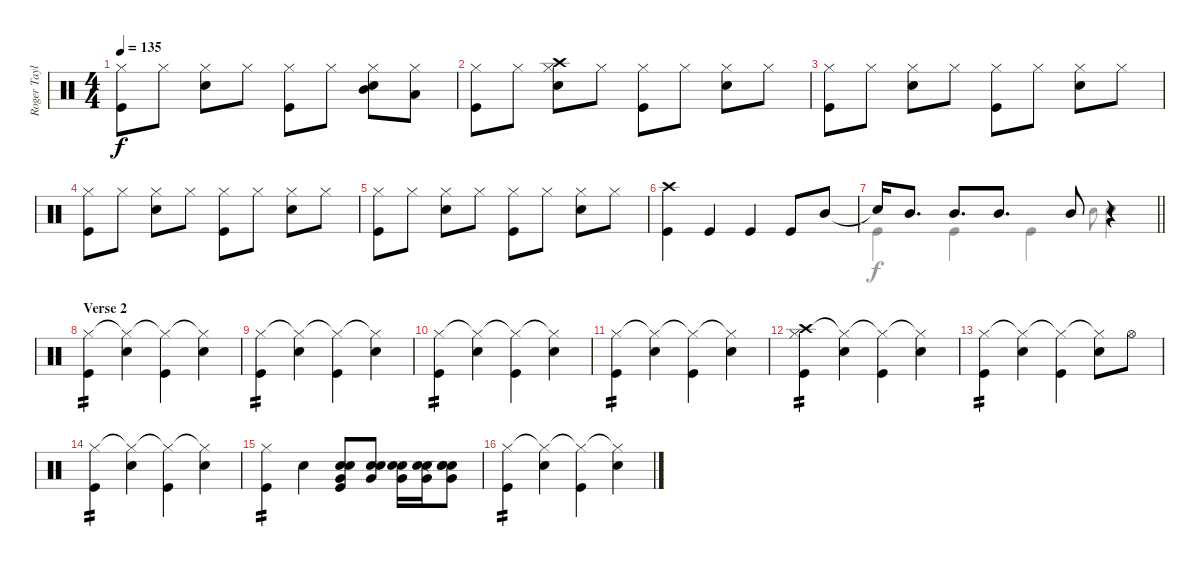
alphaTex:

\track ("Roger Taylor" "Roger Tayl") {instrument percussion}
\staff {score}
\articulation defaults
\voice
\ts (4 4)
\tempo 135
\clef neutral
\ks c
("Hi-Hat (closed)" "Kick (hit)").8{dy f} "Hi-Hat (closed)".8 ("Hi-Hat (closed)" "Snare (hit) 2").8 "Hi-Hat (closed)".8 ("Hi-Hat (closed)" "Kick (hit)").8 "Hi-Hat (closed)".8 ("Hi-Hat (closed)" "Mid Tom (hit)" "Snare (hit) 2").8 ("Hi-Hat (closed)" "Low Tom (hit)").8 |
("Hi-Hat (closed)" "Kick (hit)").8 "Hi-Hat (closed)".8 ("Crash high (hit)" "Hi-Hat (closed)" "Snare (hit) 2").8 "Hi-Hat (closed)".8 ("Hi-Hat (closed)" "Kick (hit)").8 "Hi-Hat (closed)".8 ("Hi-Hat (closed)" "Snare (hit) 2").8 "Hi-Hat (closed)".8 |
("Hi-Hat (closed)" "Kick (hit)").8 "Hi-Hat (closed)".8 ("Hi-Hat (closed)" "Snare (hit) 2").8 "Hi-Hat (closed)".8 ("Hi-Hat (closed)" "Kick (hit)").8 "Hi-Hat (closed)".8 ("Hi-Hat (closed)" "Snare (hit) 2").8 "Hi-Hat (closed)".8 |
("Hi-Hat (closed)" "Kick (hit)").8 "Hi-Hat (closed)".8 ("Hi-Hat (closed)" "Snare (hit) 2").8 "Hi-Hat (closed)".8 ("Hi-Hat (closed)" "Kick (hit)").8 "Hi-Hat (closed)".8 ("Hi-Hat (closed)" "Snare (hit) 2").8 "Hi-Hat (closed)".8 |
("Hi-Hat (closed)" "Kick (hit)").8 "Hi-Hat (closed)".8 ("Hi-Hat (closed)" "Snare (hit) 2").8 "Hi-Hat (closed)".8 ("Hi-Hat (closed)" "Kick (hit)").8 "Hi-Hat (closed)".8 ("Hi-Hat (closed)" "Snare (hit) 2").8 "Hi-Hat (closed)".8 |
("Crash high (hit)" "Kick (hit)").4 "Kick (hit)".4 "Kick (hit)".4 "Kick (hit)".8 "Mid Tom (hit)".8 |
\barLineRight lightlight "Snare (hit)"{t}.16 "Mid Tom (hit)".8{d} "Mid Tom (hit)".8{d} "Mid Tom (hit)".8{d} "Mid Tom (hit)".8
r.4 |
\section ("" "Verse 2")
("Hi-Hat (closed)" "Kick (hit)").4{tp 2} ("Hi-Hat (closed)"{t} "Snare (hit) 2").4 ("Hi-Hat (closed)"{t} "Kick (hit)").4 ("Hi-Hat (closed)"{t} "Snare (hit) 2").4 |
("Hi-Hat (closed)" "Kick (hit)").4{tp 2} ("Hi-Hat (closed)"{t} "Snare (hit) 2").4 ("Hi-Hat (closed)"{t} "Kick (hit)").4 ("Hi-Hat (closed)"{t} "Snare (hit) 2").4 |
("Hi-Hat (closed)" "Kick (hit)").4{tp 2} ("Hi-Hat (closed)"{t} "Snare (hit) 2").4 ("Hi-Hat (closed)"{t} "Kick (hit)").4 ("Hi-Hat (closed)"{t} "Snare (hit) 2").4 |
("Hi-Hat (closed)" "Kick (hit)").4{tp 2} ("Hi-Hat (closed)"{t} "Snare (hit) 2").4 ("Hi-Hat (closed)"{t} "Kick (hit)").4 ("Hi-Hat (closed)"{t} "Snare (hit) 2").4 |
("Crash high (hit)" "Hi-Hat (closed)" "Kick (hit)").4{tp 2} ("Hi-Hat (closed)"{t} "Snare (hit) 2").4 ("Hi-Hat (closed)"{t} "Kick (hit)").4 ("Hi-Hat (closed)"{t} "Snare (hit) 2").4 |
("Hi-Hat (closed)" "Kick (hit)").4{tp 2} ("Hi-Hat (closed)"{t} "Snare (hit) 2").4 ("Hi-Hat (closed)"{t} "Kick (hit)").4 ("Hi-Hat (closed)"{t} "Snare (hit) 2").8 "Hi-Hat (open)".8 |
("Hi-Hat (closed)" "Kick (hit)").4{tp 2} ("Hi-Hat (closed)"{t} "Snare (hit) 2").4 ("Hi-Hat (closed)"{t} "Kick (hit)").4 ("Hi-Hat (closed)"{t} "Snare (hit) 2").4 |
("Hi-Hat (closed)" "Kick (hit)").4{tp 2} "Snare (hit) 2".4 ("Very Low Tom (hit)" "Electric Snare (hit)" "Snare (hit) 2" "Kick (hit)").8 ("Very Low Tom (hit)" "Electric Snare (hit)" "Snare (hit) 2").8 ("Very Low Tom (hit)" "Electric Snare (hit)" "Snare (hit) 2").16 ("Very Low Tom (hit)" "Electric Snare (hit)" "Snare (hit) 2").16 ("Snare (hit)"{t} "Very Low Tom (hit)" "Electric Snare (hit)" "Snare (hit) 2").8 |
("Hi-Hat (closed)" "Kick (hit)").4{tp 2} ("Hi-Hat (closed)"{t} "Snare (hit) 2").4 ("Hi-Hat (closed)"{t} "Kick (hit)").4 ("Hi-Hat (closed)"{t} "Snare (hit) 2").4
\voice
\clef neutral
\ottava regular
\simile none
\ks c
|
|
|
|
|
|
\barLineRight lightlight "Kick (hit)".4 "Kick (hit)".4 "Kick (hit)".4 "Snare (hit) 2".8{gr onbeat} "Snare (hit) 2".4
|
|
|
|
|
|
|
|
|
